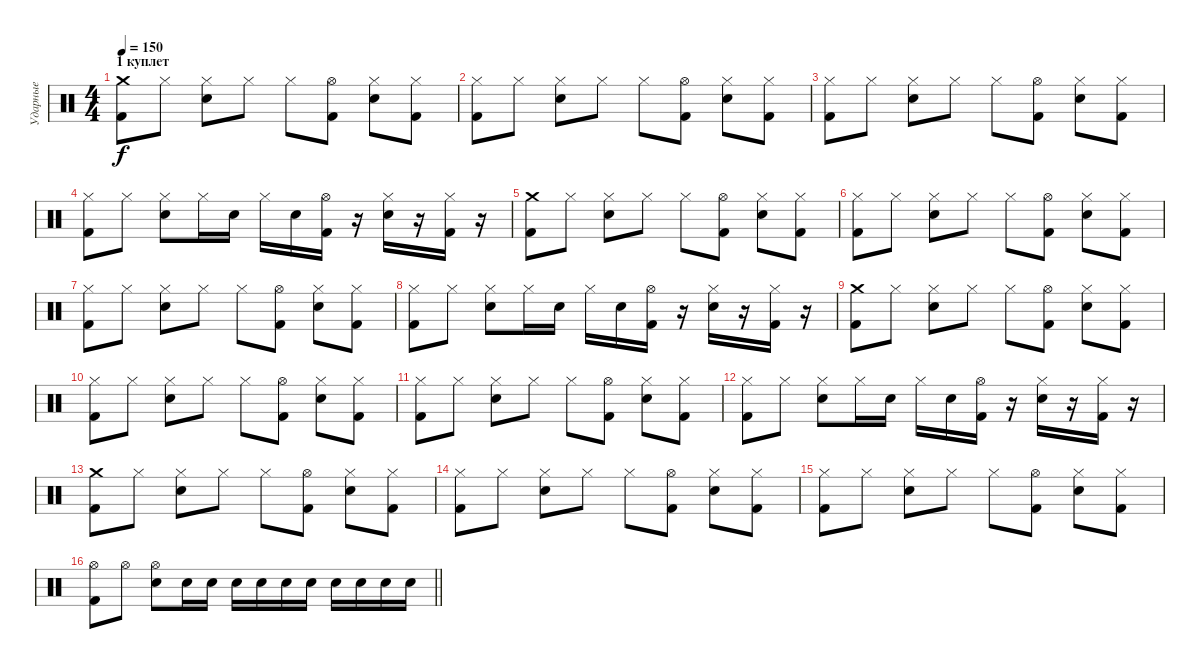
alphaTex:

\track ("Ударные" "Ударные") {instrument percussion}
\staff {score}
\articulation defaults
\ts (4 4)
\section ("" "1 куплет")
\tempo 150
\clef neutral
\ks c
("Crash medium (hit)" "Kick (hit) 2").8{dy f} "Hi-Hat (closed)".8 ("Hi-Hat (closed)" "Electric Snare (hit)").8 "Hi-Hat (closed)".8 "Hi-Hat (closed)".8 ("Hi-Hat (open)" "Kick (hit) 2").8 ("Hi-Hat (closed)" "Electric Snare (hit)").8 ("Hi-Hat (closed)" "Kick (hit) 2").8 |
("Hi-Hat (closed)" "Kick (hit) 2").8 "Hi-Hat (closed)".8 ("Hi-Hat (closed)" "Electric Snare (hit)").8 "Hi-Hat (closed)".8 "Hi-Hat (closed)".8 ("Hi-Hat (open)" "Kick (hit) 2").8 ("Hi-Hat (closed)" "Electric Snare (hit)").8 ("Hi-Hat (closed)" "Kick (hit) 2").8 |
("Hi-Hat (closed)" "Kick (hit) 2").8 "Hi-Hat (closed)".8 ("Hi-Hat (closed)" "Electric Snare (hit)").8 "Hi-Hat (closed)".8 "Hi-Hat (closed)".8 ("Hi-Hat (open)" "Kick (hit) 2").8 ("Hi-Hat (closed)" "Electric Snare (hit)").8 ("Hi-Hat (closed)" "Kick (hit) 2").8 |
("Hi-Hat (closed)" "Kick (hit) 2").8 "Hi-Hat (closed)".8 ("Hi-Hat (closed)" "Electric Snare (hit)").8 "Hi-Hat (closed)".16 "Electric Snare (hit)".16 "Hi-Hat (closed)".16 "Electric Snare (hit)".16 ("Hi-Hat (open)" "Kick (hit) 2").16 r.16 ("Hi-Hat (closed)" "Electric Snare (hit)").16 r.16 ("Hi-Hat (closed)" "Kick (hit) 2").16 r.16 |
("Crash medium (hit)" "Kick (hit) 2").8 "Hi-Hat (closed)".8 ("Hi-Hat (closed)" "Electric Snare (hit)").8 "Hi-Hat (closed)".8 "Hi-Hat (closed)".8 ("Hi-Hat (open)" "Kick (hit) 2").8 ("Hi-Hat (closed)" "Electric Snare (hit)").8 ("Hi-Hat (closed)" "Kick (hit) 2").8 |
("Hi-Hat (closed)" "Kick (hit) 2").8 "Hi-Hat (closed)".8 ("Hi-Hat (closed)" "Electric Snare (hit)").8 "Hi-Hat (closed)".8 "Hi-Hat (closed)".8 ("Hi-Hat (open)" "Kick (hit) 2").8 ("Hi-Hat (closed)" "Electric Snare (hit)").8 ("Hi-Hat (closed)" "Kick (hit) 2").8 |
("Hi-Hat (closed)" "Kick (hit) 2").8 "Hi-Hat (closed)".8 ("Hi-Hat (closed)" "Electric Snare (hit)").8 "Hi-Hat (closed)".8 "Hi-Hat (closed)".8 ("Hi-Hat (open)" "Kick (hit) 2").8 ("Hi-Hat (closed)" "Electric Snare (hit)").8 ("Hi-Hat (closed)" "Kick (hit) 2").8 |
("Hi-Hat (closed)" "Kick (hit) 2").8 "Hi-Hat (closed)".8 ("Hi-Hat (closed)" "Electric Snare (hit)").8 "Hi-Hat (closed)".16 "Electric Snare (hit)".16 "Hi-Hat (closed)".16 "Electric Snare (hit)".16 ("Hi-Hat (open)" "Kick (hit) 2").16 r.16 ("Hi-Hat (closed)" "Electric Snare (hit)").16 r.16 ("Hi-Hat (closed)" "Kick (hit) 2").16 r.16 |
("Crash medium (hit)" "Kick (hit) 2").8 "Hi-Hat (closed)".8 ("Hi-Hat (closed)" "Electric Snare (hit)").8 "Hi-Hat (closed)".8 "Hi-Hat (closed)".8 ("Hi-Hat (open)" "Kick (hit) 2").8 ("Hi-Hat (closed)" "Electric Snare (hit)").8 ("Hi-Hat (closed)" "Kick (hit) 2").8 |
("Hi-Hat (closed)" "Kick (hit) 2").8 "Hi-Hat (closed)".8 ("Hi-Hat (closed)" "Electric Snare (hit)").8 "Hi-Hat (closed)".8 "Hi-Hat (closed)".8 ("Hi-Hat (open)" "Kick (hit) 2").8 ("Hi-Hat (closed)" "Electric Snare (hit)").8 ("Hi-Hat (closed)" "Kick (hit) 2").8 |
("Hi-Hat (closed)" "Kick (hit) 2").8 "Hi-Hat (closed)".8 ("Hi-Hat (closed)" "Electric Snare (hit)").8 "Hi-Hat (closed)".8 "Hi-Hat (closed)".8 ("Hi-Hat (open)" "Kick (hit) 2").8 ("Hi-Hat (closed)" "Electric Snare (hit)").8 ("Hi-Hat (closed)" "Kick (hit) 2").8 |
("Hi-Hat (closed)" "Kick (hit) 2").8 "Hi-Hat (closed)".8 ("Hi-Hat (closed)" "Electric Snare (hit)").8 "Hi-Hat (closed)".16 "Electric Snare (hit)".16 "Hi-Hat (closed)".16 "Electric Snare (hit)".16 ("Hi-Hat (open)" "Kick (hit) 2").16 r.16 ("Hi-Hat (closed)" "Electric Snare (hit)").16 r.16 ("Hi-Hat (closed)" "Kick (hit) 2").16 r.16 |
("Crash medium (hit)" "Kick (hit) 2").8 "Hi-Hat (closed)".8 ("Hi-Hat (closed)" "Electric Snare (hit)").8 "Hi-Hat (closed)".8 "Hi-Hat (closed)".8 ("Hi-Hat (open)" "Kick (hit) 2").8 ("Hi-Hat (closed)" "Electric Snare (hit)").8 ("Hi-Hat (closed)" "Kick (hit) 2").8 |
("Hi-Hat (closed)" "Kick (hit) 2").8 "Hi-Hat (closed)".8 ("Hi-Hat (closed)" "Electric Snare (hit)").8 "Hi-Hat (closed)".8 "Hi-Hat (closed)".8 ("Hi-Hat (open)" "Kick (hit) 2").8 ("Hi-Hat (closed)" "Electric Snare (hit)").8 ("Hi-Hat (closed)" "Kick (hit) 2").8 |
("Hi-Hat (closed)" "Kick (hit) 2").8 "Hi-Hat (closed)".8 ("Hi-Hat (closed)" "Electric Snare (hit)").8 "Hi-Hat (closed)".8 "Hi-Hat (closed)".8 ("Hi-Hat (open)" "Kick (hit) 2").8 ("Hi-Hat (closed)" "Electric Snare (hit)").8 ("Hi-Hat (closed)" "Kick (hit) 2").8 |
\barLineRight lightlight
("Hi-Hat (open)" "Kick (hit) 2").8 "Hi-Hat (open)".8 ("Hi-Hat (open)" "Electric Snare (hit)").8 "Electric Snare (hit)".16 "Electric Snare (hit)".16 "Electric Snare (hit)".16 "Electric Snare (hit)".16 "Electric Snare (hit)".16 "Electric Snare (hit)".16 "Electric Snare (hit)".16 "Electric Snare (hit)".16 "Electric Snare (hit)".16 "Electric Snare (hit)".16
